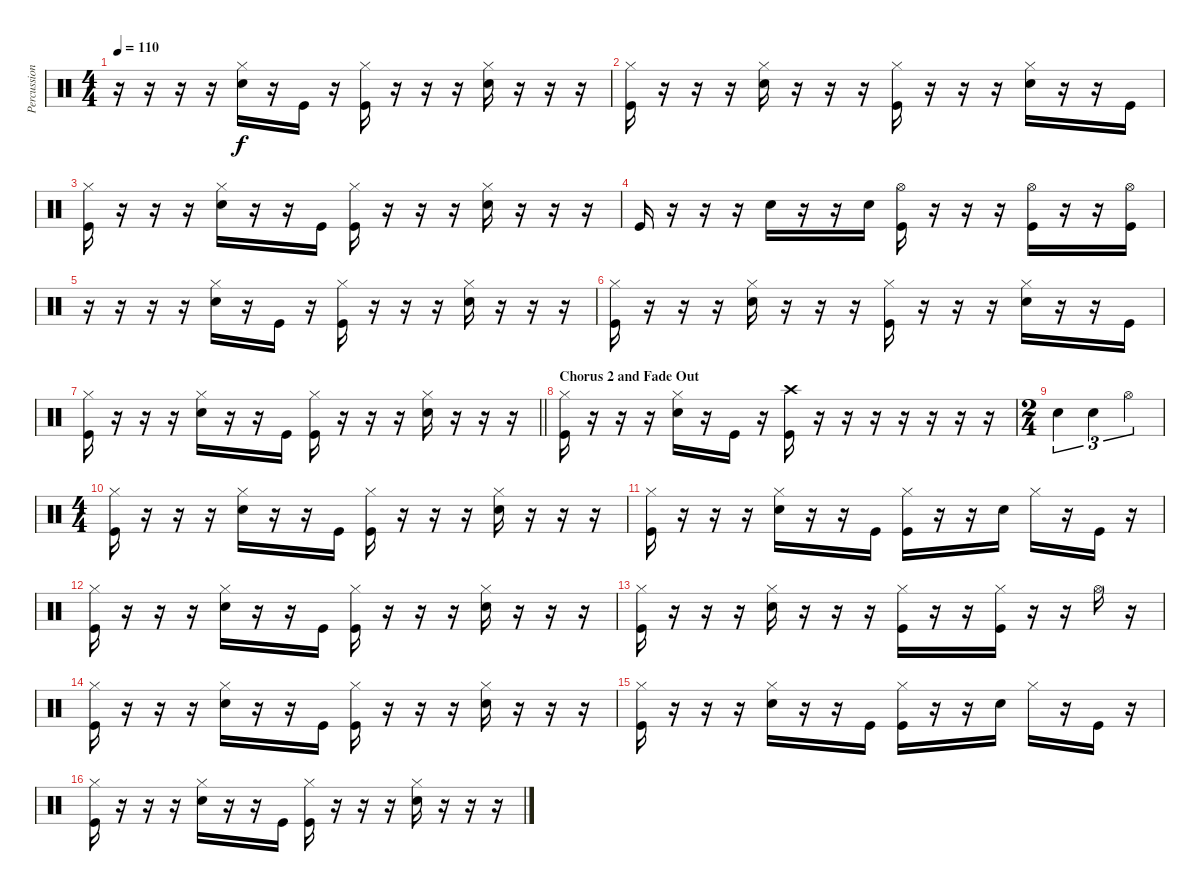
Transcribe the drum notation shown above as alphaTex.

\track ("Percussion" "Percussion") {instrument percussion}
\staff {score}
\articulation defaults
\ts (4 4)
\tempo 110
\clef neutral
\ks c
r.16{dy f} r.16 r.16 r.16 ("Hi-Hat (closed)" "Snare (hit) 2").16 r.16 "Kick (hit)".16 r.16 ("Hi-Hat (closed)" "Kick (hit)").16 r.16 r.16 r.16 ("Hi-Hat (closed)" "Snare (hit) 2").16 r.16 r.16 r.16 |
("Hi-Hat (closed)" "Kick (hit)").16 r.16 r.16 r.16 ("Hi-Hat (closed)" "Snare (hit) 2").16 r.16 r.16 r.16 ("Hi-Hat (closed)" "Kick (hit)").16 r.16 r.16 r.16 ("Hi-Hat (closed)" "Snare (hit) 2").16 r.16 r.16 "Kick (hit)".16 |
("Hi-Hat (closed)" "Kick (hit)").16 r.16 r.16 r.16 ("Hi-Hat (closed)" "Snare (hit) 2").16 r.16 r.16 "Kick (hit)".16 ("Hi-Hat (closed)" "Kick (hit)").16 r.16 r.16 r.16 ("Hi-Hat (closed)" "Snare (hit) 2").16 r.16 r.16 r.16 |
"Kick (hit)".16 r.16 r.16 r.16 "Snare (hit) 2".16 r.16 r.16 "Snare (hit) 2".16 ("Hi-Hat (open)" "Kick (hit)").16 r.16 r.16 r.16 ("Hi-Hat (open)" "Kick (hit)").16 r.16 r.16 ("Hi-Hat (open)" "Kick (hit)").16 |
r.16 r.16 r.16 r.16 ("Hi-Hat (closed)" "Snare (hit) 2").16 r.16 "Kick (hit)".16 r.16 ("Hi-Hat (closed)" "Kick (hit)").16 r.16 r.16 r.16 ("Hi-Hat (closed)" "Snare (hit) 2").16 r.16 r.16 r.16 |
("Hi-Hat (closed)" "Kick (hit)").16 r.16 r.16 r.16 ("Hi-Hat (closed)" "Snare (hit) 2").16 r.16 r.16 r.16 ("Hi-Hat (closed)" "Kick (hit)").16 r.16 r.16 r.16 ("Hi-Hat (closed)" "Snare (hit) 2").16 r.16 r.16 "Kick (hit)".16 |
\barLineRight lightlight
("Hi-Hat (closed)" "Kick (hit)").16 r.16 r.16 r.16 ("Hi-Hat (closed)" "Snare (hit) 2").16 r.16 r.16 "Kick (hit)".16 ("Hi-Hat (closed)" "Kick (hit)").16 r.16 r.16 r.16 ("Hi-Hat (closed)" "Snare (hit) 2").16 r.16 r.16 r.16 |
\section ("" "Chorus 2 and Fade Out")
("Hi-Hat (closed)" "Kick (hit)").16 r.16 r.16 r.16 ("Hi-Hat (closed)" "Snare (hit) 2").16 r.16 "Kick (hit)".16 r.16 ("Crash high (hit)" "Kick (hit)").16 r.16 r.16 r.16 r.16 r.16 r.16 r.16 |
\ts (2 4)
"Snare (hit) 2".4{tu (3 2)} "Snare (hit) 2".4{tu (3 2)} "Hi-Hat (open)".4{tu (3 2)} |
\ts (4 4)
("Hi-Hat (closed)" "Kick (hit)").16 r.16 r.16 r.16 ("Hi-Hat (closed)" "Snare (hit) 2").16 r.16 r.16 "Kick (hit)".16 ("Hi-Hat (closed)" "Kick (hit)").16 r.16 r.16 r.16 ("Hi-Hat (closed)" "Snare (hit) 2").16 r.16 r.16 r.16 |
("Hi-Hat (closed)" "Kick (hit)").16 r.16 r.16 r.16 ("Hi-Hat (closed)" "Snare (hit) 2").16 r.16 r.16 "Kick (hit)".16 ("Hi-Hat (closed)" "Kick (hit)").16 r.16 r.16 "Snare (hit) 2".16 "Hi-Hat (closed)".16 r.16 "Kick (hit)".16 r.16 |
("Hi-Hat (closed)" "Kick (hit)").16 r.16 r.16 r.16 ("Hi-Hat (closed)" "Snare (hit) 2").16 r.16 r.16 "Kick (hit)".16 ("Hi-Hat (closed)" "Kick (hit)").16 r.16 r.16 r.16 ("Hi-Hat (closed)" "Snare (hit) 2").16 r.16 r.16 r.16 |
("Hi-Hat (closed)" "Kick (hit)").16 r.16 r.16 r.16 ("Hi-Hat (closed)" "Snare (hit) 2").16 r.16 r.16 r.16 ("Hi-Hat (closed)" "Kick (hit)").16 r.16 r.16 ("Hi-Hat (closed)" "Kick (hit)").16 r.16 r.16 "Hi-Hat (open)".16 r.16 |
("Hi-Hat (closed)" "Kick (hit)").16 r.16 r.16 r.16 ("Hi-Hat (closed)" "Snare (hit) 2").16 r.16 r.16 "Kick (hit)".16 ("Hi-Hat (closed)" "Kick (hit)").16 r.16 r.16 r.16 ("Hi-Hat (closed)" "Snare (hit) 2").16 r.16 r.16 r.16 |
("Hi-Hat (closed)" "Kick (hit)").16 r.16 r.16 r.16 ("Hi-Hat (closed)" "Snare (hit) 2").16 r.16 r.16 "Kick (hit)".16 ("Hi-Hat (closed)" "Kick (hit)").16 r.16 r.16 "Snare (hit) 2".16 "Hi-Hat (closed)".16 r.16 "Kick (hit)".16 r.16 |
("Hi-Hat (closed)" "Kick (hit)").16 r.16 r.16 r.16 ("Hi-Hat (closed)" "Snare (hit) 2").16 r.16 r.16 "Kick (hit)".16 ("Hi-Hat (closed)" "Kick (hit)").16 r.16 r.16 r.16 ("Hi-Hat (closed)" "Snare (hit) 2").16 r.16 r.16 r.16
